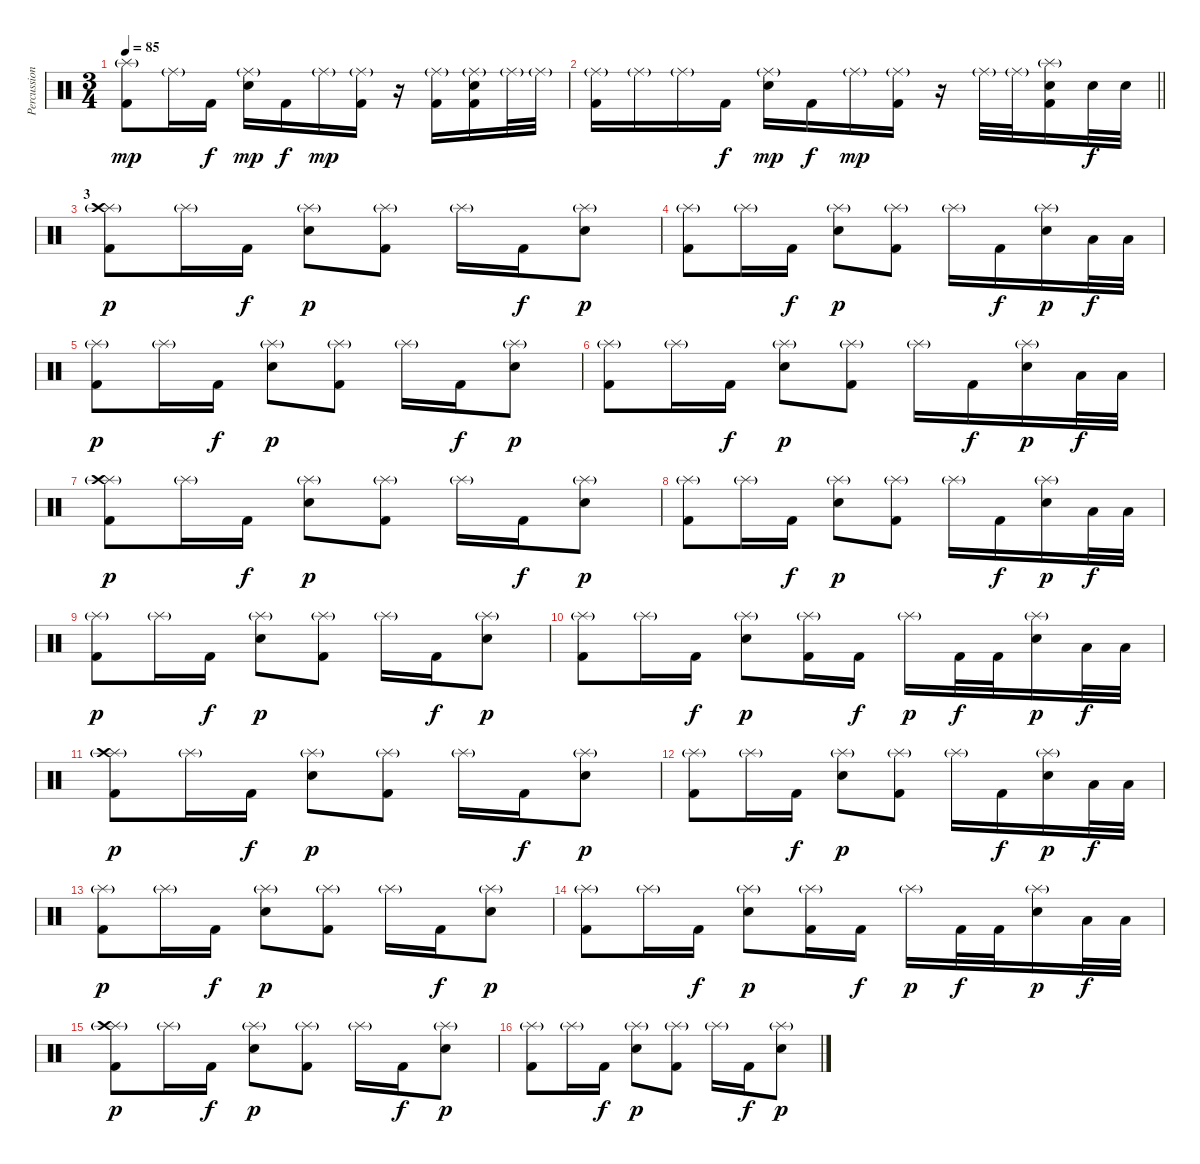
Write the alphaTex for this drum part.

\track ("Percussion" "Percussion") {instrument percussion}
\staff {score}
\articulation defaults
\ts (3 4)
\tempo 85
\clef neutral
\ks c
("Splash (hit)"{g} "Kick (hit) 2").8{dy mp} "Ride (middle)"{g}.16 "Kick (hit) 2".16{dy f} ("Ride (middle)"{g} "Snare (hit) 2").16{dy mp} "Kick (hit) 2".16{dy f} "Ride (middle)"{g}.16{dy mp} ("Ride (middle)"{g} "Kick (hit) 2").16 r.16 ("Ride (middle)"{g} "Kick (hit) 2").16 ("Ride (middle)"{g} "Snare (hit) 2" "Kick (hit) 2").16 "Ride (middle)"{g}.32 "Ride (middle)"{g}.32 |
\barLineRight lightlight
("Ride (middle)"{g} "Kick (hit) 2").16 "Ride (middle)"{g}.16 "Ride (middle)"{g}.16 "Kick (hit) 2".16{dy f} ("Ride (middle)"{g} "Snare (hit) 2").16{dy mp} "Kick (hit) 2".16{dy f} "Ride (middle)"{g}.16{dy mp} ("Ride (middle)"{g} "Kick (hit) 2").16 r.16 "Ride (middle)"{g}.32 "Ride (middle)"{g}.32 ("Splash (hit)"{g} "Snare (hit) 2" "Kick (hit) 2").16 "Snare (hit) 2".32{dy f} "Snare (hit) 2".32 |
\section ("" "3")
("Splash (hit)"{g} "Crash high (hit)" "Kick (hit) 2").8{dy p} "Splash (hit)"{g}.16 "Kick (hit) 2".16{dy f} ("Splash (hit)"{g} "Snare (hit) 2").8{dy p} ("Splash (hit)"{g} "Kick (hit) 2").8 "Splash (hit)"{g}.16 "Kick (hit) 2".16{dy f} ("Splash (hit)"{g} "Snare (hit) 2").8{dy p} |
("Splash (hit)"{g} "Kick (hit) 2").8 "Splash (hit)"{g}.16 "Kick (hit) 2".16{dy f} ("Splash (hit)"{g} "Snare (hit) 2").8{dy p} ("Splash (hit)"{g} "Kick (hit) 2").8 "Splash (hit)"{g}.16 "Kick (hit) 2".16{dy f} ("Splash (hit)"{g} "Snare (hit) 2").16{dy p} "Low Floor Tom (hit)".32{dy f} "Low Floor Tom (hit)".32 |
("Splash (hit)"{g} "Kick (hit) 2").8{dy p} "Splash (hit)"{g}.16 "Kick (hit) 2".16{dy f} ("Splash (hit)"{g} "Snare (hit) 2").8{dy p} ("Splash (hit)"{g} "Kick (hit) 2").8 "Splash (hit)"{g}.16 "Kick (hit) 2".16{dy f} ("Splash (hit)"{g} "Snare (hit) 2").8{dy p} |
("Splash (hit)"{g} "Kick (hit) 2").8 "Splash (hit)"{g}.16 "Kick (hit) 2".16{dy f} ("Splash (hit)"{g} "Snare (hit) 2").8{dy p} ("Splash (hit)"{g} "Kick (hit) 2").8 "Splash (hit)"{g}.16 "Kick (hit) 2".16{dy f} ("Splash (hit)"{g} "Snare (hit) 2").16{dy p} "Low Floor Tom (hit)".32{dy f} "Low Floor Tom (hit)".32 |
("Splash (hit)"{g} "Crash high (hit)" "Kick (hit) 2").8{dy p} "Splash (hit)"{g}.16 "Kick (hit) 2".16{dy f} ("Splash (hit)"{g} "Snare (hit) 2").8{dy p} ("Splash (hit)"{g} "Kick (hit) 2").8 "Splash (hit)"{g}.16 "Kick (hit) 2".16{dy f} ("Splash (hit)"{g} "Snare (hit) 2").8{dy p} |
("Splash (hit)"{g} "Kick (hit) 2").8 "Splash (hit)"{g}.16 "Kick (hit) 2".16{dy f} ("Splash (hit)"{g} "Snare (hit) 2").8{dy p} ("Splash (hit)"{g} "Kick (hit) 2").8 "Splash (hit)"{g}.16 "Kick (hit) 2".16{dy f} ("Splash (hit)"{g} "Snare (hit) 2").16{dy p} "Low Floor Tom (hit)".32{dy f} "Low Floor Tom (hit)".32 |
("Splash (hit)"{g} "Kick (hit) 2").8{dy p} "Splash (hit)"{g}.16 "Kick (hit) 2".16{dy f} ("Splash (hit)"{g} "Snare (hit) 2").8{dy p} ("Splash (hit)"{g} "Kick (hit) 2").8 "Splash (hit)"{g}.16 "Kick (hit) 2".16{dy f} ("Splash (hit)"{g} "Snare (hit) 2").8{dy p} |
("Splash (hit)"{g} "Kick (hit) 2").8 "Splash (hit)"{g}.16 "Kick (hit) 2".16{dy f} ("Splash (hit)"{g} "Snare (hit) 2").8{dy p} ("Splash (hit)"{g} "Kick (hit) 2").16 "Kick (hit) 2".16{dy f} "Splash (hit)"{g}.16{dy p} "Kick (hit) 2".32{dy f} "Kick (hit) 2".32 ("Splash (hit)"{g} "Snare (hit) 2").16{dy p} "Low Floor Tom (hit)".32{dy f} "Low Floor Tom (hit)".32 |
("Splash (hit)"{g} "Crash high (hit)" "Kick (hit) 2").8{dy p} "Splash (hit)"{g}.16 "Kick (hit) 2".16{dy f} ("Splash (hit)"{g} "Snare (hit) 2").8{dy p} ("Splash (hit)"{g} "Kick (hit) 2").8 "Splash (hit)"{g}.16 "Kick (hit) 2".16{dy f} ("Splash (hit)"{g} "Snare (hit) 2").8{dy p} |
("Splash (hit)"{g} "Kick (hit) 2").8 "Splash (hit)"{g}.16 "Kick (hit) 2".16{dy f} ("Splash (hit)"{g} "Snare (hit) 2").8{dy p} ("Splash (hit)"{g} "Kick (hit) 2").8 "Splash (hit)"{g}.16 "Kick (hit) 2".16{dy f} ("Splash (hit)"{g} "Snare (hit) 2").16{dy p} "Low Floor Tom (hit)".32{dy f} "Low Floor Tom (hit)".32 |
("Splash (hit)"{g} "Kick (hit) 2").8{dy p} "Splash (hit)"{g}.16 "Kick (hit) 2".16{dy f} ("Splash (hit)"{g} "Snare (hit) 2").8{dy p} ("Splash (hit)"{g} "Kick (hit) 2").8 "Splash (hit)"{g}.16 "Kick (hit) 2".16{dy f} ("Splash (hit)"{g} "Snare (hit) 2").8{dy p} |
("Splash (hit)"{g} "Kick (hit) 2").8 "Splash (hit)"{g}.16 "Kick (hit) 2".16{dy f} ("Splash (hit)"{g} "Snare (hit) 2").8{dy p} ("Splash (hit)"{g} "Kick (hit) 2").16 "Kick (hit) 2".16{dy f} "Splash (hit)"{g}.16{dy p} "Kick (hit) 2".32{dy f} "Kick (hit) 2".32 ("Splash (hit)"{g} "Snare (hit) 2").16{dy p} "Low Floor Tom (hit)".32{dy f} "Low Floor Tom (hit)".32 |
("Splash (hit)"{g} "Crash high (hit)" "Kick (hit) 2").8{dy p} "Splash (hit)"{g}.16 "Kick (hit) 2".16{dy f} ("Splash (hit)"{g} "Snare (hit) 2").8{dy p} ("Splash (hit)"{g} "Kick (hit) 2").8 "Splash (hit)"{g}.16 "Kick (hit) 2".16{dy f} ("Splash (hit)"{g} "Snare (hit) 2").8{dy p} |
("Splash (hit)"{g} "Kick (hit) 2").8 "Splash (hit)"{g}.16 "Kick (hit) 2".16{dy f} ("Splash (hit)"{g} "Snare (hit) 2").8{dy p} ("Splash (hit)"{g} "Kick (hit) 2").8 "Splash (hit)"{g}.16 "Kick (hit) 2".16{dy f} ("Splash (hit)"{g} "Snare (hit) 2").8{dy p}
